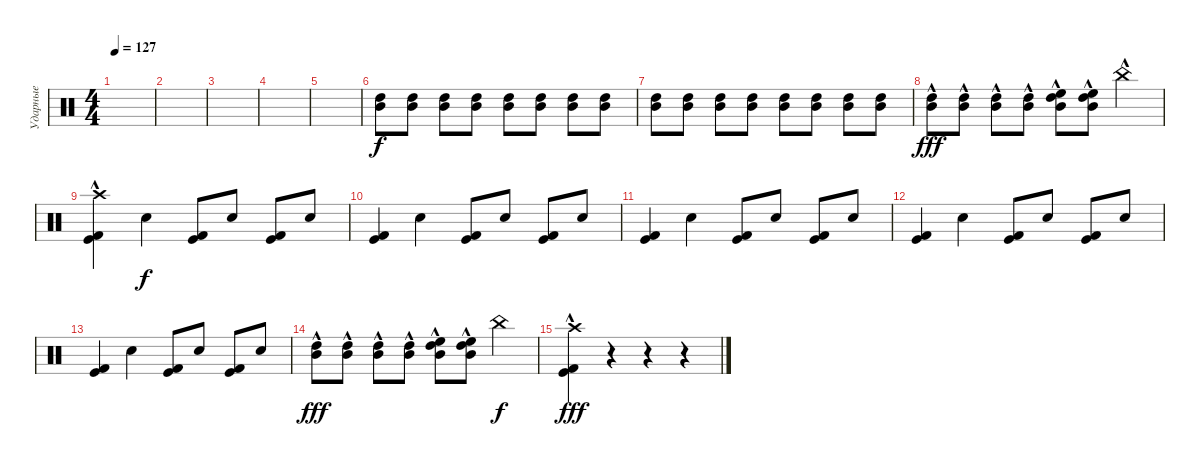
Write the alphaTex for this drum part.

\track ("Ударные" "Ударные") {instrument percussion}
\staff {score}
\articulation defaults
\ts (4 4)
\tempo 127
\clef neutral
\ks c
|
|
|
|
|
("Mid Tom (hit)" "High Tom (hit)").8{dy f} ("Mid Tom (hit)" "High Tom (hit)").8 ("Mid Tom (hit)" "High Tom (hit)").8 ("Mid Tom (hit)" "High Tom (hit)").8 ("Mid Tom (hit)" "High Tom (hit)").8 ("Mid Tom (hit)" "High Tom (hit)").8 ("Mid Tom (hit)" "High Tom (hit)").8 ("Mid Tom (hit)" "High Tom (hit)").8 |
("Mid Tom (hit)" "High Tom (hit)").8 ("Mid Tom (hit)" "High Tom (hit)").8 ("Mid Tom (hit)" "High Tom (hit)").8 ("Mid Tom (hit)" "High Tom (hit)").8 ("Mid Tom (hit)" "High Tom (hit)").8 ("Mid Tom (hit)" "High Tom (hit)").8 ("Mid Tom (hit)" "High Tom (hit)").8 ("Mid Tom (hit)" "High Tom (hit)").8 |
("Mid Tom (hit)"{hac} "High Tom (hit)"{hac}).8{dy fff} ("Mid Tom (hit)"{hac} "High Tom (hit)"{hac}).8 ("Mid Tom (hit)"{hac} "High Tom (hit)"{hac}).8 ("Mid Tom (hit)"{hac} "High Tom (hit)"{hac}).8 ("Mid Tom (hit)"{hac} "High Tom (hit)"{hac} "High Floor Tom (hit)"{hac}).8 ("Mid Tom (hit)"{hac} "High Tom (hit)"{hac} "High Floor Tom (hit)"{hac}).8 "China (hit)"{hac}.4 |
("Kick (hit) 2"{hac} "Kick (hit)"{hac} "Crash high (hit)"{hac}).4 "Snare (hit) 2".4{dy f} ("Kick (hit) 2" "Kick (hit)").8 "Snare (hit) 2".8 ("Kick (hit) 2" "Kick (hit)").8 "Snare (hit) 2".8 |
("Kick (hit) 2" "Kick (hit)").4 "Snare (hit) 2".4 ("Kick (hit) 2" "Kick (hit)").8 "Snare (hit) 2".8 ("Kick (hit) 2" "Kick (hit)").8 "Snare (hit) 2".8 |
("Kick (hit) 2" "Kick (hit)").4 "Snare (hit) 2".4 ("Kick (hit) 2" "Kick (hit)").8 "Snare (hit) 2".8 ("Kick (hit) 2" "Kick (hit)").8 "Snare (hit) 2".8 |
("Kick (hit) 2" "Kick (hit)").4 "Snare (hit) 2".4 ("Kick (hit) 2" "Kick (hit)").8 "Snare (hit) 2".8 ("Kick (hit) 2" "Kick (hit)").8 "Snare (hit) 2".8 |
("Kick (hit) 2" "Kick (hit)").4 "Snare (hit) 2".4 ("Kick (hit) 2" "Kick (hit)").8 "Snare (hit) 2".8 ("Kick (hit) 2" "Kick (hit)").8 "Snare (hit) 2".8 |
("Mid Tom (hit)"{hac} "High Tom (hit)"{hac}).8{dy fff} ("Mid Tom (hit)"{hac} "High Tom (hit)"{hac}).8 ("Mid Tom (hit)"{hac} "High Tom (hit)"{hac}).8 ("Mid Tom (hit)"{hac} "High Tom (hit)"{hac}).8 ("Mid Tom (hit)"{hac} "High Tom (hit)"{hac} "High Floor Tom (hit)"{hac}).8 ("Mid Tom (hit)"{hac} "High Tom (hit)"{hac} "High Floor Tom (hit)"{hac}).8 "China (hit)".4{dy f} |
("Kick (hit) 2"{hac} "Kick (hit)"{hac} "Crash high (hit)"{hac}).4{dy fff} r.4 r.4 r.4
